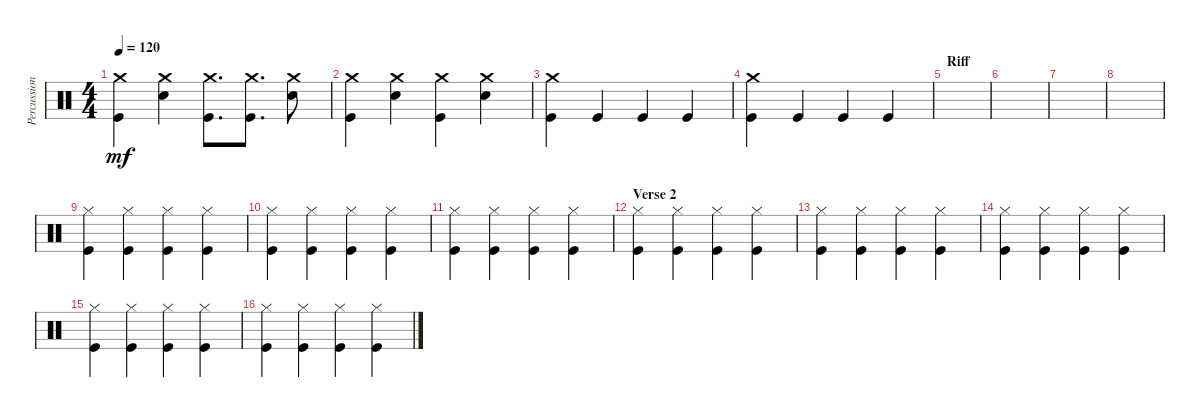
\track ("Percussion" "Percussion") {instrument percussion}
\staff {score}
\articulation defaults
\ts (4 4)
\tempo 120
\clef neutral
\ks c
("Crash medium (hit)" "Kick (hit)").4{dy mf} ("Crash medium (hit)" "Snare (hit) 2").4 ("Crash medium (hit)" "Kick (hit)").8{d} ("Crash medium (hit)" "Kick (hit)").8{d} ("Crash medium (hit)" "Snare (hit) 2").8 |
("Crash medium (hit)" "Kick (hit)").4 ("Crash medium (hit)" "Snare (hit) 2").4 ("Crash medium (hit)" "Kick (hit)").4 ("Crash medium (hit)" "Snare (hit) 2").4 |
("Crash medium (hit)" "Kick (hit)").4 "Kick (hit)".4 "Kick (hit)".4 "Kick (hit)".4 |
("Kick (hit)" "Crash medium (hit)").4 "Kick (hit)".4 "Kick (hit)".4 "Kick (hit)".4 |
\section ("" "Riff")
|
|
|
|
("Hi-Hat (closed)" "Kick (hit)").4 ("Hi-Hat (closed)" "Kick (hit)").4 ("Hi-Hat (closed)" "Kick (hit)").4 ("Hi-Hat (closed)" "Kick (hit)").4 |
("Hi-Hat (closed)" "Kick (hit)").4 ("Hi-Hat (closed)" "Kick (hit)").4 ("Hi-Hat (closed)" "Kick (hit)").4 ("Hi-Hat (closed)" "Kick (hit)").4 |
("Hi-Hat (closed)" "Kick (hit)").4 ("Hi-Hat (closed)" "Kick (hit)").4 ("Hi-Hat (closed)" "Kick (hit)").4 ("Hi-Hat (closed)" "Kick (hit)").4 |
\section ("" "Verse 2")
("Hi-Hat (closed)" "Kick (hit)").4 ("Hi-Hat (closed)" "Kick (hit)").4 ("Hi-Hat (closed)" "Kick (hit)").4 ("Hi-Hat (closed)" "Kick (hit)").4 |
("Hi-Hat (closed)" "Kick (hit)").4 ("Hi-Hat (closed)" "Kick (hit)").4 ("Hi-Hat (closed)" "Kick (hit)").4 ("Hi-Hat (closed)" "Kick (hit)").4 |
("Hi-Hat (closed)" "Kick (hit)").4 ("Hi-Hat (closed)" "Kick (hit)").4 ("Hi-Hat (closed)" "Kick (hit)").4 ("Hi-Hat (closed)" "Kick (hit)").4 |
("Hi-Hat (closed)" "Kick (hit)").4 ("Hi-Hat (closed)" "Kick (hit)").4 ("Hi-Hat (closed)" "Kick (hit)").4 ("Hi-Hat (closed)" "Kick (hit)").4 |
("Hi-Hat (closed)" "Kick (hit)").4 ("Hi-Hat (closed)" "Kick (hit)").4 ("Hi-Hat (closed)" "Kick (hit)").4 ("Hi-Hat (closed)" "Kick (hit)").4
